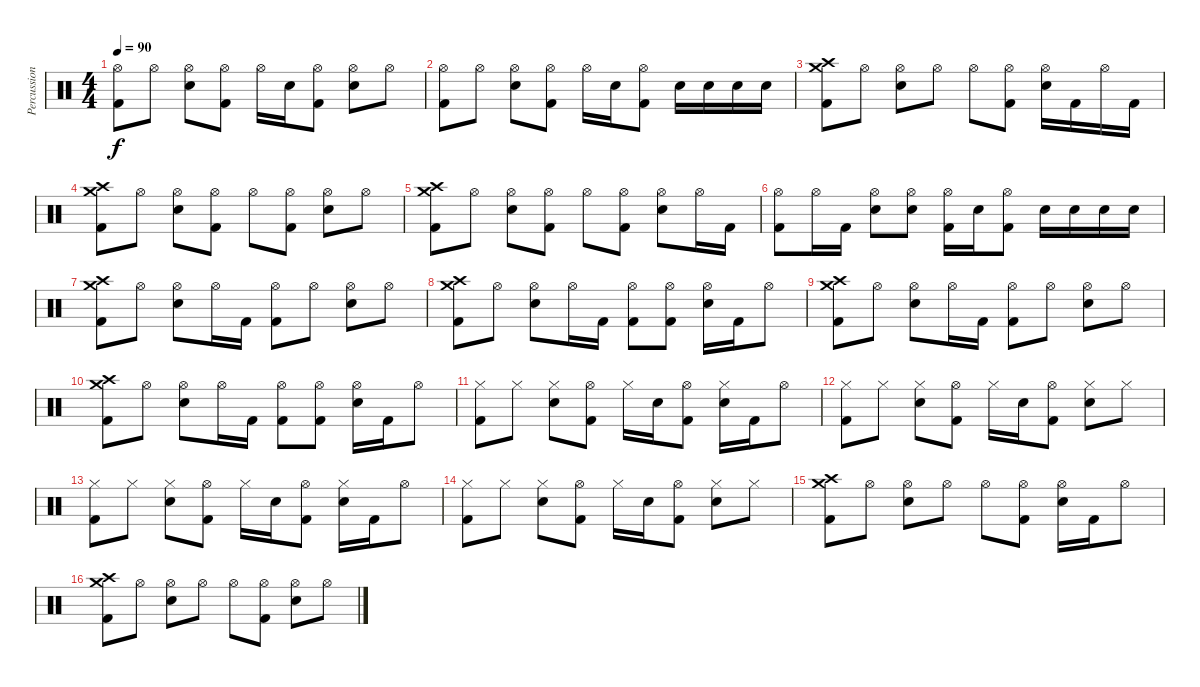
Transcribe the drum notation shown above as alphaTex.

\track ("Percussion" "Percussion") {instrument percussion}
\staff {score}
\articulation defaults
\ts (4 4)
\tempo 90
\clef neutral
\ks c
("Hi-Hat (open)" "Kick (hit) 2").8{dy f} "Hi-Hat (open)".8 ("Hi-Hat (open)" "Snare (hit) 2").8 ("Hi-Hat (open)" "Kick (hit) 2").8 "Hi-Hat (open)".16 "Snare (hit) 2".16 ("Hi-Hat (open)" "Kick (hit) 2").8 ("Hi-Hat (open)" "Snare (hit) 2").8 "Hi-Hat (open)".8 |
("Hi-Hat (open)" "Kick (hit) 2").8 "Hi-Hat (open)".8 ("Hi-Hat (open)" "Snare (hit) 2").8 ("Hi-Hat (open)" "Kick (hit) 2").8 "Hi-Hat (open)".16 "Snare (hit) 2".16 ("Hi-Hat (open)" "Kick (hit) 2").8 "Snare (hit) 2".16 "Snare (hit) 2".16 "Snare (hit) 2".16 "Snare (hit) 2".16 |
("Crash high (hit)" "Crash medium (hit)" "Kick (hit) 2").8 "Hi-Hat (open)".8 ("Hi-Hat (open)" "Snare (hit) 2").8 "Hi-Hat (open)".8 "Hi-Hat (open)".8 ("Hi-Hat (open)" "Kick (hit) 2").8 ("Hi-Hat (open)" "Snare (hit) 2").16 "Kick (hit) 2".16 "Hi-Hat (open)".16 "Kick (hit) 2".16 |
("Crash high (hit)" "Crash medium (hit)" "Kick (hit) 2").8 "Hi-Hat (open)".8 ("Hi-Hat (open)" "Snare (hit) 2").8 ("Hi-Hat (open)" "Kick (hit) 2").8 "Hi-Hat (open)".8 ("Hi-Hat (open)" "Kick (hit) 2").8 ("Hi-Hat (open)" "Snare (hit) 2").8 "Hi-Hat (open)".8 |
("Crash high (hit)" "Crash medium (hit)" "Kick (hit) 2").8 "Hi-Hat (open)".8 ("Hi-Hat (open)" "Snare (hit) 2").8 ("Hi-Hat (open)" "Kick (hit) 2").8 "Hi-Hat (open)".8 ("Hi-Hat (open)" "Kick (hit) 2").8 ("Hi-Hat (open)" "Snare (hit) 2").8 "Hi-Hat (open)".16 "Kick (hit) 2".16 |
("Hi-Hat (open)" "Kick (hit) 2").8 "Hi-Hat (open)".16 "Kick (hit) 2".16 ("Hi-Hat (open)" "Snare (hit) 2").8 ("Hi-Hat (open)" "Snare (hit) 2").8 ("Hi-Hat (open)" "Kick (hit) 2").16 "Snare (hit) 2".16 ("Hi-Hat (open)" "Kick (hit) 2").8 "Snare (hit) 2".16 "Snare (hit) 2".16 "Snare (hit) 2".16 "Snare (hit) 2".16 |
("Crash medium (hit)" "Crash high (hit)" "Kick (hit) 2").8 "Hi-Hat (open)".8 ("Hi-Hat (open)" "Snare (hit) 2").8 "Hi-Hat (open)".16 "Kick (hit) 2".16 ("Hi-Hat (open)" "Kick (hit) 2").8 "Hi-Hat (open)".8 ("Hi-Hat (open)" "Snare (hit) 2").8 "Hi-Hat (open)".8 |
("Crash medium (hit)" "Crash high (hit)" "Kick (hit) 2").8 "Hi-Hat (open)".8 ("Hi-Hat (open)" "Snare (hit) 2").8 "Hi-Hat (open)".16 "Kick (hit) 2".16 ("Hi-Hat (open)" "Kick (hit) 2").8 ("Hi-Hat (open)" "Kick (hit) 2").8 ("Hi-Hat (open)" "Snare (hit) 2").16 "Kick (hit) 2".16 "Hi-Hat (open)".8 |
("Crash medium (hit)" "Crash high (hit)" "Kick (hit) 2").8 "Hi-Hat (open)".8 ("Hi-Hat (open)" "Snare (hit) 2").8 "Hi-Hat (open)".16 "Kick (hit) 2".16 ("Hi-Hat (open)" "Kick (hit) 2").8 "Hi-Hat (open)".8 ("Hi-Hat (open)" "Snare (hit) 2").8 "Hi-Hat (open)".8 |
("Crash medium (hit)" "Crash high (hit)" "Kick (hit) 2").8 "Hi-Hat (open)".8 ("Hi-Hat (open)" "Snare (hit) 2").8 "Hi-Hat (open)".16 "Kick (hit) 2".16 ("Hi-Hat (open)" "Kick (hit) 2").8 ("Hi-Hat (open)" "Kick (hit) 2").8 ("Hi-Hat (open)" "Snare (hit) 2").16 "Kick (hit) 2".16 "Hi-Hat (open)".8 |
("Hi-Hat (closed)" "Kick (hit) 2").8 "Hi-Hat (closed)".8 ("Hi-Hat (closed)" "Snare (hit) 2").8 ("Hi-Hat (open)" "Kick (hit) 2").8 "Hi-Hat (closed)".16 "Snare (hit) 2".16 ("Hi-Hat (open)" "Kick (hit) 2").8 ("Hi-Hat (closed)" "Snare (hit) 2").16 "Kick (hit) 2".16 "Hi-Hat (open)".8 |
("Hi-Hat (closed)" "Kick (hit) 2").8 "Hi-Hat (closed)".8 ("Hi-Hat (closed)" "Snare (hit) 2").8 ("Hi-Hat (open)" "Kick (hit) 2").8 "Hi-Hat (closed)".16 "Snare (hit) 2".16 ("Hi-Hat (open)" "Kick (hit) 2").8 ("Hi-Hat (closed)" "Snare (hit) 2").8 "Hi-Hat (closed)".8 |
("Hi-Hat (closed)" "Kick (hit) 2").8 "Hi-Hat (closed)".8 ("Hi-Hat (closed)" "Snare (hit) 2").8 ("Hi-Hat (open)" "Kick (hit) 2").8 "Hi-Hat (closed)".16 "Snare (hit) 2".16 ("Hi-Hat (open)" "Kick (hit) 2").8 ("Hi-Hat (closed)" "Snare (hit) 2").16 "Kick (hit) 2".16 "Hi-Hat (open)".8 |
("Hi-Hat (closed)" "Kick (hit) 2").8 "Hi-Hat (closed)".8 ("Hi-Hat (closed)" "Snare (hit) 2").8 ("Hi-Hat (open)" "Kick (hit) 2").8 "Hi-Hat (closed)".16 "Snare (hit) 2".16 ("Hi-Hat (open)" "Kick (hit) 2").8 ("Hi-Hat (closed)" "Snare (hit) 2").8 "Hi-Hat (closed)".8 |
("Crash high (hit)" "Crash medium (hit)" "Kick (hit) 2").8 "Hi-Hat (open)".8 ("Hi-Hat (open)" "Snare (hit) 2").8 "Hi-Hat (open)".8 "Hi-Hat (open)".8 ("Hi-Hat (open)" "Kick (hit) 2").8 ("Hi-Hat (open)" "Snare (hit) 2").16 "Kick (hit) 2".16 "Hi-Hat (open)".8 |
("Crash high (hit)" "Crash medium (hit)" "Kick (hit) 2").8 "Hi-Hat (open)".8 ("Hi-Hat (open)" "Snare (hit) 2").8 "Hi-Hat (open)".8 "Hi-Hat (open)".8 ("Hi-Hat (open)" "Kick (hit) 2").8 ("Hi-Hat (open)" "Snare (hit) 2").8 "Hi-Hat (open)".8
